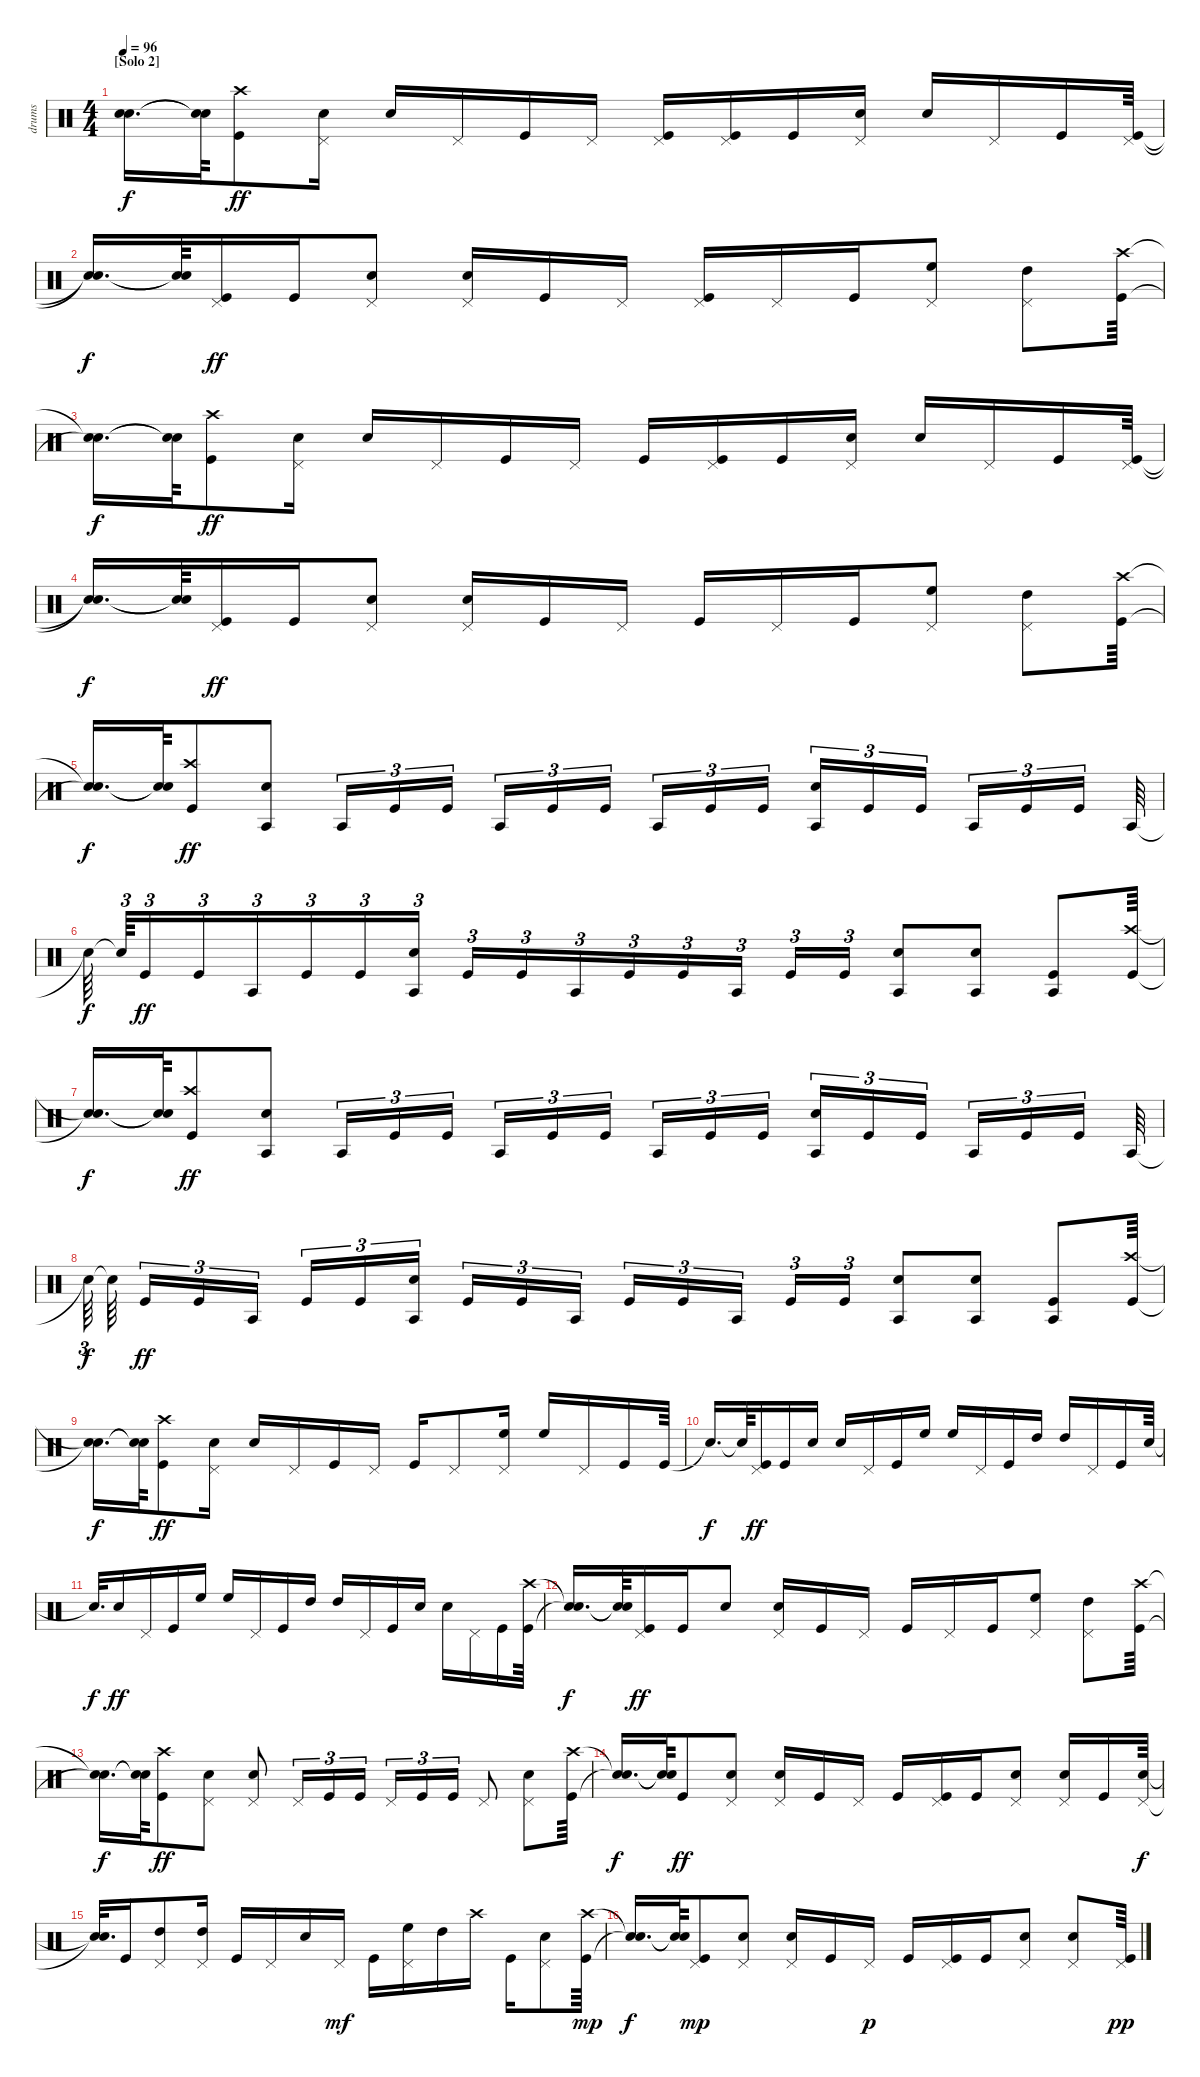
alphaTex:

\track ("drums" "drums") {instrument percussion}
\staff {score}
\articulation defaults
\ts (4 4)
\section ("" "[Solo 2]")
\tempo 96
\clef neutral
\ks c
("Snare (hit)"{t} "Snare (hit)"{t}).16{d dy f} ("Snare (hit)"{t} "Snare (hit)"{t}).64 ("Crash high (hit)" "Kick (hit)").8{dy ff} ("Pedal Hi-Hat (hit)" "Snare (hit) 2").16 "Snare (hit) 2".16 "Pedal Hi-Hat (hit)".16 "Kick (hit)".16 "Pedal Hi-Hat (hit)".16 ("Pedal Hi-Hat (hit)" "Kick (hit)").16 ("Pedal Hi-Hat (hit)" "Kick (hit)").16 "Kick (hit)".16 ("Pedal Hi-Hat (hit)" "Snare (hit) 2").16 "Snare (hit) 2".16 "Pedal Hi-Hat (hit)".16 "Kick (hit)".16 ("Pedal Hi-Hat (hit)" "Kick (hit)").64 |
("Snare (hit)"{t} "Snare (hit)"{t}).16{d dy f} ("Snare (hit)"{t} "Snare (hit)"{t}).64 ("Pedal Hi-Hat (hit)" "Kick (hit)").16{dy ff} "Kick (hit)".16 ("Pedal Hi-Hat (hit)" "Snare (hit) 2").8 ("Pedal Hi-Hat (hit)" "Snare (hit) 2").16 "Kick (hit)".16 "Pedal Hi-Hat (hit)".16 ("Pedal Hi-Hat (hit)" "Kick (hit)").16 "Pedal Hi-Hat (hit)".16 "Kick (hit)".16 ("Pedal Hi-Hat (hit)" "High Floor Tom (hit)").8 ("Pedal Hi-Hat (hit)" "High Tom (hit)").8 ("Crash high (hit)" "Kick (hit)").64 |
("Snare (hit)"{t} "Snare (hit)"{t}).16{d dy f} ("Snare (hit)"{t} "Snare (hit)"{t}).64 ("Crash high (hit)" "Kick (hit)").8{dy ff} ("Pedal Hi-Hat (hit)" "Snare (hit) 2").16 "Snare (hit) 2".16 "Pedal Hi-Hat (hit)".16 "Kick (hit)".16 "Pedal Hi-Hat (hit)".16 "Kick (hit)".16 ("Pedal Hi-Hat (hit)" "Kick (hit)").16 "Kick (hit)".16 ("Pedal Hi-Hat (hit)" "Snare (hit) 2").16 "Snare (hit) 2".16 "Pedal Hi-Hat (hit)".16 "Kick (hit)".16 ("Pedal Hi-Hat (hit)" "Kick (hit)").64 |
("Snare (hit)"{t} "Snare (hit)"{t}).16{d dy f} ("Snare (hit)"{t} "Snare (hit)"{t}).64 ("Pedal Hi-Hat (hit)" "Kick (hit)").16{dy ff} "Kick (hit)".16 ("Pedal Hi-Hat (hit)" "Snare (hit) 2").8 ("Pedal Hi-Hat (hit)" "Snare (hit) 2").16 "Kick (hit)".16 "Pedal Hi-Hat (hit)".16 "Kick (hit)".16 "Pedal Hi-Hat (hit)".16 "Kick (hit)".16 ("Pedal Hi-Hat (hit)" "High Floor Tom (hit)").8 ("Pedal Hi-Hat (hit)" "High Tom (hit)").8 ("Crash high (hit)" "Kick (hit)").64 |
("Snare (hit)"{t} "Snare (hit)"{t}).16{d dy f} ("Snare (hit)"{t} "Snare (hit)"{t}).64 ("Crash high (hit)" "Kick (hit)").8{dy ff} ("Agogo tow (hit)" "Snare (hit) 2").8 "Agogo tow (hit)".16{tu (3 2)} "Kick (hit)".16{tu (3 2)} "Kick (hit)".16{tu (3 2)} "Agogo tow (hit)".16{tu (3 2)} "Kick (hit)".16{tu (3 2)} "Kick (hit)".16{tu (3 2)} "Agogo tow (hit)".16{tu (3 2)} "Kick (hit)".16{tu (3 2)} "Kick (hit)".16{tu (3 2)} ("Agogo tow (hit)" "Snare (hit) 2").16{tu (3 2)} "Kick (hit)".16{tu (3 2)} "Kick (hit)".16{tu (3 2)} "Agogo tow (hit)".16{tu (3 2)} "Kick (hit)".16{tu (3 2)} "Kick (hit)".16{tu (3 2)} "Agogo tow (hit)".64 |
"Snare (hit)"{t}.64{dy f} "Snare (hit)"{t}.64{tu (3 2)} "Kick (hit)".16{tu (3 2) dy ff} "Kick (hit)".16{tu (3 2)} "Agogo tow (hit)".16{tu (3 2)} "Kick (hit)".16{tu (3 2)} "Kick (hit)".16{tu (3 2)} ("Agogo tow (hit)" "Snare (hit) 2").16{tu (3 2)} "Kick (hit)".16{tu (3 2)} "Kick (hit)".16{tu (3 2)} "Agogo tow (hit)".16{tu (3 2)} "Kick (hit)".16{tu (3 2)} "Kick (hit)".16{tu (3 2)} "Agogo tow (hit)".16{tu (3 2)} "Kick (hit)".16{tu (3 2)} "Kick (hit)".16{tu (3 2)} ("Agogo tow (hit)" "Snare (hit) 2").8 ("Agogo tow (hit)" "Snare (hit) 2").8 ("Agogo tow (hit)" "Kick (hit)").8 ("Crash high (hit)" "Kick (hit)").64 |
("Snare (hit)"{t} "Snare (hit)"{t}).16{d dy f} ("Snare (hit)"{t} "Snare (hit)"{t}).64 ("Crash high (hit)" "Kick (hit)").8{dy ff} ("Agogo tow (hit)" "Snare (hit) 2").8 "Agogo tow (hit)".16{tu (3 2)} "Kick (hit)".16{tu (3 2)} "Kick (hit)".16{tu (3 2)} "Agogo tow (hit)".16{tu (3 2)} "Kick (hit)".16{tu (3 2)} "Kick (hit)".16{tu (3 2)} "Agogo tow (hit)".16{tu (3 2)} "Kick (hit)".16{tu (3 2)} "Kick (hit)".16{tu (3 2)} ("Agogo tow (hit)" "Snare (hit) 2").16{tu (3 2)} "Kick (hit)".16{tu (3 2)} "Kick (hit)".16{tu (3 2)} "Agogo tow (hit)".16{tu (3 2)} "Kick (hit)".16{tu (3 2)} "Kick (hit)".16{tu (3 2)} "Agogo tow (hit)".64 |
"Snare (hit)"{t}.64{tu (3 2) dy f} "Snare (hit)"{t}.64 "Kick (hit)".16{tu (3 2) dy ff} "Kick (hit)".16{tu (3 2)} "Agogo tow (hit)".16{tu (3 2)} "Kick (hit)".16{tu (3 2)} "Kick (hit)".16{tu (3 2)} ("Agogo tow (hit)" "Snare (hit) 2").16{tu (3 2)} "Kick (hit)".16{tu (3 2)} "Kick (hit)".16{tu (3 2)} "Agogo tow (hit)".16{tu (3 2)} "Kick (hit)".16{tu (3 2)} "Kick (hit)".16{tu (3 2)} "Agogo tow (hit)".16{tu (3 2)} "Kick (hit)".16{tu (3 2)} "Kick (hit)".16{tu (3 2)} ("Agogo tow (hit)" "Snare (hit) 2").8 ("Agogo tow (hit)" "Snare (hit) 2").8 ("Agogo tow (hit)" "Kick (hit)").8 ("Crash high (hit)" "Kick (hit)").64 |
("Snare (hit)"{t} "Snare (hit)"{t}).16{d dy f} ("Snare (hit)"{t} "Snare (hit)"{t}).64 ("Crash high (hit)" "Kick (hit)").8{dy ff} ("Pedal Hi-Hat (hit)" "Snare (hit) 2").16 "Snare (hit) 2".16 "Pedal Hi-Hat (hit)".16 "Kick (hit)".16 "Pedal Hi-Hat (hit)".16 "Kick (hit)".16 "Pedal Hi-Hat (hit)".8 ("Pedal Hi-Hat (hit)" "High Floor Tom (hit)").16 "High Floor Tom (hit)".16 "Pedal Hi-Hat (hit)".16 "Kick (hit)".16 "Kick (hit)".64 |
"Snare (hit)"{t}.16{d dy f} "Snare (hit)"{t}.64 ("Pedal Hi-Hat (hit)" "Kick (hit)").16{dy ff} "Kick (hit)".16 "Snare (hit) 2".16 "Snare (hit) 2".16 "Pedal Hi-Hat (hit)".16 "Kick (hit)".16 "High Floor Tom (hit)".16 "High Floor Tom (hit)".16 "Pedal Hi-Hat (hit)".16 "Kick (hit)".16 "High Tom (hit)".16 "High Tom (hit)".16 "Pedal Hi-Hat (hit)".16 "Kick (hit)".16 "Snare (hit) 2".64 |
"Snare (hit)"{t}.32{d dy f} "Snare (hit) 2".16{dy ff} "Pedal Hi-Hat (hit)".16 "Kick (hit)".16 "High Floor Tom (hit)".16 "High Floor Tom (hit)".16 "Pedal Hi-Hat (hit)".16 "Kick (hit)".16 "High Tom (hit)".16 "High Tom (hit)".16 "Pedal Hi-Hat (hit)".16 "Kick (hit)".16 "Snare (hit) 2".16 "Snare (hit) 2".16 "Pedal Hi-Hat (hit)".16 "Kick (hit)".16 ("Crash high (hit)" "Kick (hit)").64 |
("Snare (hit)"{t} "Snare (hit)"{t}).16{d dy f} ("Snare (hit)"{t} "Snare (hit)"{t}).64 ("Pedal Hi-Hat (hit)" "Kick (hit)").16{dy ff} "Kick (hit)".16 "Snare (hit) 2".8 ("Pedal Hi-Hat (hit)" "Snare (hit) 2").16 "Kick (hit)".16 "Pedal Hi-Hat (hit)".16 "Kick (hit)".16 "Pedal Hi-Hat (hit)".16 "Kick (hit)".16 ("Pedal Hi-Hat (hit)" "High Floor Tom (hit)").8 ("Pedal Hi-Hat (hit)" "High Tom (hit)").8 ("Crash high (hit)" "Kick (hit)").64 |
("Snare (hit)"{t} "Snare (hit)"{t}).16{d dy f} ("Snare (hit)"{t} "Snare (hit)"{t}).64 ("Crash high (hit)" "Kick (hit)").8{dy ff} ("Pedal Hi-Hat (hit)" "Snare (hit) 2").8 ("Pedal Hi-Hat (hit)" "Snare (hit) 2").8 "Pedal Hi-Hat (hit)".16{tu (3 2)} "Kick (hit)".16{tu (3 2)} "Kick (hit)".16{tu (3 2)} "Pedal Hi-Hat (hit)".16{tu (3 2)} "Kick (hit)".16{tu (3 2)} "Kick (hit)".16{tu (3 2)} "Pedal Hi-Hat (hit)".8 ("Pedal Hi-Hat (hit)" "Snare (hit) 2").8 ("Crash high (hit)" "Kick (hit)").64 |
("Snare (hit)"{t} "Snare (hit)"{t}).16{d dy f} ("Snare (hit)"{t} "Snare (hit)"{t}).64 "Kick (hit)".8{dy ff} ("Pedal Hi-Hat (hit)" "Snare (hit) 2").8 ("Pedal Hi-Hat (hit)" "Snare (hit) 2").16 "Kick (hit)".16 "Pedal Hi-Hat (hit)".16 "Kick (hit)".16 ("Pedal Hi-Hat (hit)" "Kick (hit)").16 "Kick (hit)".16 ("Pedal Hi-Hat (hit)" "Snare (hit) 2").8 ("Pedal Hi-Hat (hit)" "Snare (hit) 2").16 "Kick (hit)".16 ("Pedal Hi-Hat (hit)" "Snare (hit) 2").64{dy f} |
("Snare (hit)"{t} "Snare (hit)"{t}).32{d} "Kick (hit)".16 ("Pedal Hi-Hat (hit)" "High Tom (hit)").8 ("Pedal Hi-Hat (hit)" "High Tom (hit)").16 "Kick (hit)".16 "Pedal Hi-Hat (hit)".16 "Snare (hit) 2".16 "Pedal Hi-Hat (hit)".16{dy mf} "Kick (hit)".16 ("Pedal Hi-Hat (hit)" "High Floor Tom (hit)").16 "High Tom (hit)".16 "Crash high (hit)".16 "Kick (hit)".16 ("Pedal Hi-Hat (hit)" "Snare (hit) 2").8 ("Crash high (hit)" "Kick (hit)").64{dy mp} |
("Snare (hit)"{t} "Snare (hit)"{t}).16{d dy f} ("Snare (hit)"{t} "Snare (hit)"{t}).64 ("Pedal Hi-Hat (hit)" "Kick (hit)").8{dy mp} ("Pedal Hi-Hat (hit)" "Snare (hit) 2").8 ("Pedal Hi-Hat (hit)" "Snare (hit) 2").16 "Kick (hit)".16 "Pedal Hi-Hat (hit)".16{dy p} "Kick (hit)".16 ("Pedal Hi-Hat (hit)" "Kick (hit)").16 "Kick (hit)".16 ("Pedal Hi-Hat (hit)" "Snare (hit) 2").8 ("Pedal Hi-Hat (hit)" "Snare (hit) 2").8 ("Pedal Hi-Hat (hit)" "Kick (hit)").64{dy pp}
